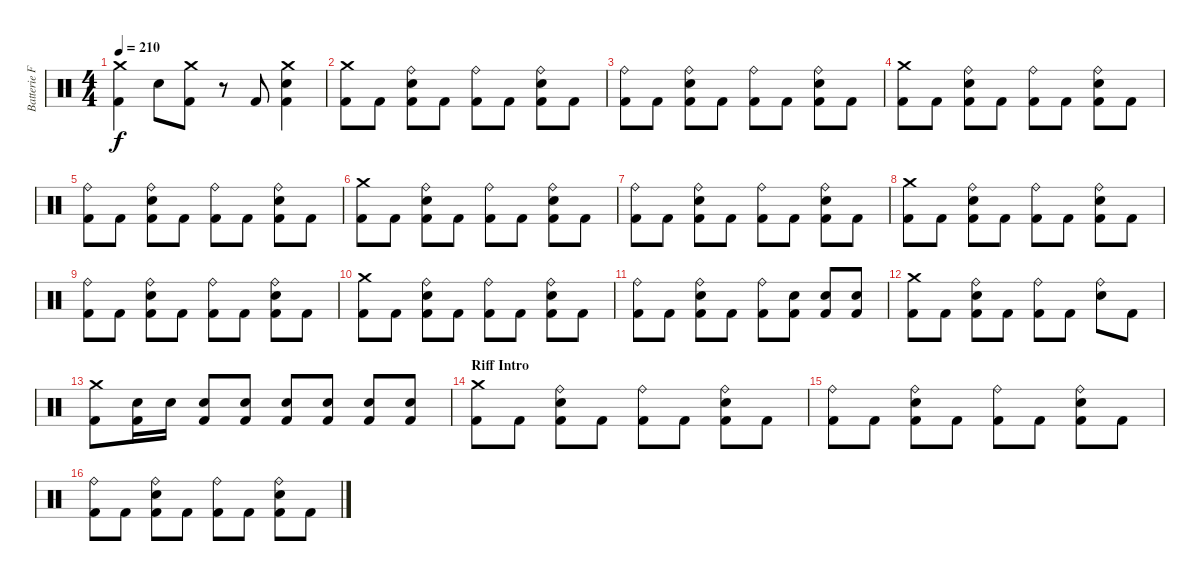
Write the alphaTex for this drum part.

\track ("Batterie Franck" "Batterie F") {instrument percussion}
\staff {score}
\articulation defaults
\ts (4 4)
\tempo 210
\clef neutral
\ks c
("Crash medium (hit)" "Kick (hit) 2").4{dy f} "Snare (hit) 2".8 ("Crash medium (hit)" "Kick (hit) 2").8 r.8 "Kick (hit) 2".8 ("Crash medium (hit)" "Snare (hit) 2" "Kick (hit) 2").4 |
("Crash medium (hit)" "Kick (hit) 2").8 "Kick (hit) 2".8 ("Ride (bell)" "Snare (hit) 2" "Kick (hit) 2").8 "Kick (hit) 2".8 ("Ride (bell)" "Kick (hit) 2").8 "Kick (hit) 2".8 ("Ride (bell)" "Snare (hit) 2" "Kick (hit) 2").8 "Kick (hit) 2".8 |
("Ride (bell)" "Kick (hit) 2").8 "Kick (hit) 2".8 ("Ride (bell)" "Snare (hit) 2" "Kick (hit) 2").8 "Kick (hit) 2".8 ("Ride (bell)" "Kick (hit) 2").8 "Kick (hit) 2".8 ("Ride (bell)" "Snare (hit) 2" "Kick (hit) 2").8 "Kick (hit) 2".8 |
("Crash medium (hit)" "Kick (hit) 2").8 "Kick (hit) 2".8 ("Ride (bell)" "Snare (hit) 2" "Kick (hit) 2").8 "Kick (hit) 2".8 ("Ride (bell)" "Kick (hit) 2").8 "Kick (hit) 2".8 ("Ride (bell)" "Snare (hit) 2" "Kick (hit) 2").8 "Kick (hit) 2".8 |
("Ride (bell)" "Kick (hit) 2").8 "Kick (hit) 2".8 ("Ride (bell)" "Snare (hit) 2" "Kick (hit) 2").8 "Kick (hit) 2".8 ("Ride (bell)" "Kick (hit) 2").8 "Kick (hit) 2".8 ("Ride (bell)" "Snare (hit) 2" "Kick (hit) 2").8 "Kick (hit) 2".8 |
("Crash medium (hit)" "Kick (hit) 2").8 "Kick (hit) 2".8 ("Ride (bell)" "Snare (hit) 2" "Kick (hit) 2").8 "Kick (hit) 2".8 ("Ride (bell)" "Kick (hit) 2").8 "Kick (hit) 2".8 ("Ride (bell)" "Snare (hit) 2" "Kick (hit) 2").8 "Kick (hit) 2".8 |
("Ride (bell)" "Kick (hit) 2").8 "Kick (hit) 2".8 ("Ride (bell)" "Snare (hit) 2" "Kick (hit) 2").8 "Kick (hit) 2".8 ("Ride (bell)" "Kick (hit) 2").8 "Kick (hit) 2".8 ("Ride (bell)" "Snare (hit) 2" "Kick (hit) 2").8 "Kick (hit) 2".8 |
("Crash medium (hit)" "Kick (hit) 2").8 "Kick (hit) 2".8 ("Ride (bell)" "Snare (hit) 2" "Kick (hit) 2").8 "Kick (hit) 2".8 ("Ride (bell)" "Kick (hit) 2").8 "Kick (hit) 2".8 ("Ride (bell)" "Snare (hit) 2" "Kick (hit) 2").8 "Kick (hit) 2".8 |
("Ride (bell)" "Kick (hit) 2").8 "Kick (hit) 2".8 ("Ride (bell)" "Snare (hit) 2" "Kick (hit) 2").8 "Kick (hit) 2".8 ("Ride (bell)" "Kick (hit) 2").8 "Kick (hit) 2".8 ("Ride (bell)" "Snare (hit) 2" "Kick (hit) 2").8 "Kick (hit) 2".8 |
("Crash medium (hit)" "Kick (hit) 2").8 "Kick (hit) 2".8 ("Ride (bell)" "Snare (hit) 2" "Kick (hit) 2").8 "Kick (hit) 2".8 ("Ride (bell)" "Kick (hit) 2").8 "Kick (hit) 2".8 ("Ride (bell)" "Snare (hit) 2" "Kick (hit) 2").8 "Kick (hit) 2".8 |
("Ride (bell)" "Kick (hit) 2").8 "Kick (hit) 2".8 ("Ride (bell)" "Snare (hit) 2" "Kick (hit) 2").8 "Kick (hit) 2".8 ("Ride (bell)" "Kick (hit) 2").8 ("Snare (hit) 2" "Kick (hit) 2").8 ("Snare (hit) 2" "Kick (hit) 2").8 ("Snare (hit) 2" "Kick (hit) 2").8 |
("Crash medium (hit)" "Kick (hit) 2").8 "Kick (hit) 2".8 ("Ride (bell)" "Snare (hit) 2" "Kick (hit) 2").8 "Kick (hit) 2".8 ("Ride (bell)" "Kick (hit) 2").8 "Kick (hit) 2".8 ("Ride (bell)" "Snare (hit) 2").8 "Kick (hit) 2".8 |
("Crash medium (hit)" "Kick (hit) 2").8 ("Snare (hit) 2" "Kick (hit) 2").16 "Snare (hit) 2".16 ("Snare (hit) 2" "Kick (hit) 2").8 ("Snare (hit) 2" "Kick (hit) 2").8 ("Snare (hit) 2" "Kick (hit) 2").8 ("Snare (hit) 2" "Kick (hit) 2").8 ("Snare (hit) 2" "Kick (hit) 2").8 ("Snare (hit) 2" "Kick (hit) 2").8 |
\section ("" "Riff Intro")
("Crash medium (hit)" "Kick (hit) 2").8 "Kick (hit) 2".8 ("Ride (bell)" "Snare (hit) 2" "Kick (hit) 2").8 "Kick (hit) 2".8 ("Ride (bell)" "Kick (hit) 2").8 "Kick (hit) 2".8 ("Ride (bell)" "Snare (hit) 2" "Kick (hit) 2").8 "Kick (hit) 2".8 |
("Ride (bell)" "Kick (hit) 2").8 "Kick (hit) 2".8 ("Ride (bell)" "Snare (hit) 2" "Kick (hit) 2").8 "Kick (hit) 2".8 ("Ride (bell)" "Kick (hit) 2").8 "Kick (hit) 2".8 ("Ride (bell)" "Snare (hit) 2" "Kick (hit) 2").8 "Kick (hit) 2".8 |
("Ride (bell)" "Kick (hit) 2").8 "Kick (hit) 2".8 ("Ride (bell)" "Snare (hit) 2" "Kick (hit) 2").8 "Kick (hit) 2".8 ("Ride (bell)" "Kick (hit) 2").8 "Kick (hit) 2".8 ("Ride (bell)" "Snare (hit) 2" "Kick (hit) 2").8 "Kick (hit) 2".8
